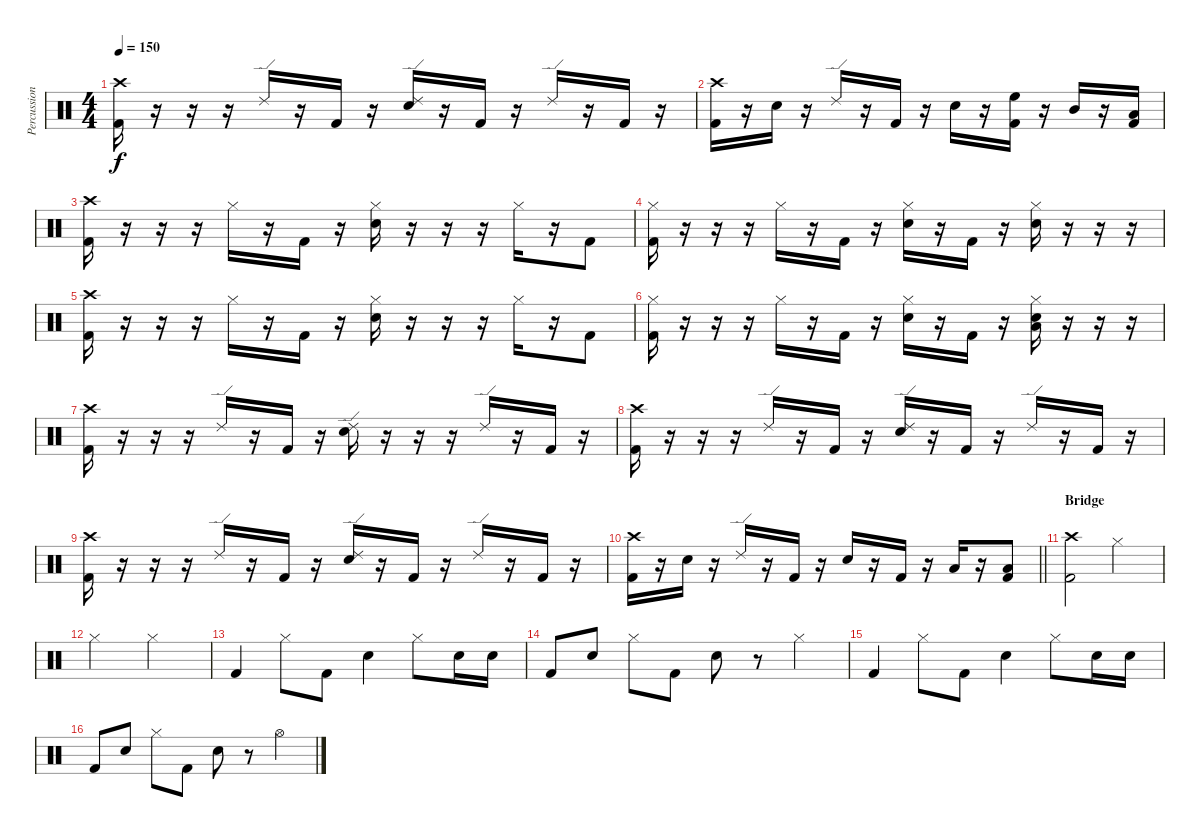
\track ("Percussion" "Percussion") {instrument percussion}
\staff {score}
\articulation defaults
\ts (4 4)
\tempo 150
\clef neutral
\ks c
("Crash high (hit)" "Kick (hit) 2").16{dy f} r.16 r.16 r.16 "Ride (edge) 2".16 r.16 "Kick (hit) 2".16 r.16 ("Ride (edge) 2" "Electric Snare (hit)").16 r.16 "Kick (hit) 2".16 r.16 "Ride (edge) 2".16 r.16 "Kick (hit) 2".16 r.16 |
("Crash high (hit)" "Kick (hit) 2").16 r.16 "Electric Snare (hit)".16 r.16 "Ride (edge) 2".16 r.16 "Kick (hit) 2".16 r.16 "Electric Snare (hit)".16 r.16 ("High Floor Tom (hit)" "Kick (hit) 2").16 r.16 "Mid Tom (hit)".16 r.16 ("Low Tom (hit)" "Kick (hit) 2").16 |
("Crash high (hit)" "Kick (hit) 2").16 r.16 r.16 r.16 "Hi-Hat (closed)".16 r.16 "Kick (hit) 2".16 r.16 ("Hi-Hat (closed)" "Electric Snare (hit)").16 r.16 r.16 r.16 "Hi-Hat (closed)".16 r.16 "Kick (hit) 2".8 |
("Hi-Hat (closed)" "Kick (hit) 2").16 r.16 r.16 r.16 "Hi-Hat (closed)".16 r.16 "Kick (hit) 2".16 r.16 ("Hi-Hat (closed)" "Electric Snare (hit)").16 r.16 "Kick (hit) 2".16 r.16 ("Hi-Hat (closed)" "Electric Snare (hit)").16 r.16 r.16 r.16 |
("Crash high (hit)" "Kick (hit) 2").16 r.16 r.16 r.16 "Hi-Hat (closed)".16 r.16 "Kick (hit) 2".16 r.16 ("Hi-Hat (closed)" "Electric Snare (hit)").16 r.16 r.16 r.16 "Hi-Hat (closed)".16 r.16 "Kick (hit) 2".8 |
("Hi-Hat (closed)" "Kick (hit) 2").16 r.16 r.16 r.16 "Hi-Hat (closed)".16 r.16 "Kick (hit) 2".16 r.16 ("Hi-Hat (closed)" "Electric Snare (hit)").16 r.16 "Kick (hit) 2".16 r.16 ("Hi-Hat (closed)" "Electric Snare (hit)" "Low Floor Tom (hit)").16 r.16 r.16 r.16 |
("Crash high (hit)" "Kick (hit) 2").16 r.16 r.16 r.16 "Ride (edge) 2".16 r.16 "Kick (hit) 2".16 r.16 ("Ride (edge) 2" "Electric Snare (hit)").16 r.16 r.16 r.16 "Ride (edge) 2".16 r.16 "Kick (hit) 2".16 r.16 |
("Crash high (hit)" "Kick (hit) 2").16 r.16 r.16 r.16 "Ride (edge) 2".16 r.16 "Kick (hit) 2".16 r.16 ("Ride (edge) 2" "Electric Snare (hit)").16 r.16 "Kick (hit) 2".16 r.16 "Ride (edge) 2".16 r.16 "Kick (hit) 2".16 r.16 |
("Crash high (hit)" "Kick (hit) 2").16 r.16 r.16 r.16 "Ride (edge) 2".16 r.16 "Kick (hit) 2".16 r.16 ("Ride (edge) 2" "Electric Snare (hit)").16 r.16 "Kick (hit) 2".16 r.16 "Ride (edge) 2".16 r.16 "Kick (hit) 2".16 r.16 |
\barLineRight lightlight
("Crash high (hit)" "Kick (hit) 2").16 r.16 "Electric Snare (hit)".16 r.16 "Ride (edge) 2".16 r.16 "Kick (hit) 2".16 r.16 "Electric Snare (hit)".16 r.16 "Kick (hit) 2".16 r.16 "Low Tom (hit)".16 r.16 ("Low Tom (hit)" "Kick (hit) 2").8 |
\section ("" "Bridge")
("Crash high (hit)" "Kick (hit) 2").2{volume 10} "Hi-Hat (closed)".2 |
"Hi-Hat (closed)".2 "Hi-Hat (closed)".2 |
"Kick (hit) 2".4 "Hi-Hat (closed)".8 "Kick (hit) 2".8 "Electric Snare (hit)".4 "Hi-Hat (closed)".8 "Electric Snare (hit)".16 "Electric Snare (hit)".16 |
"Kick (hit) 2".8 "Electric Snare (hit)".8 "Hi-Hat (closed)".8 "Kick (hit) 2".8 "Electric Snare (hit)".8 r.8 "Hi-Hat (closed)".4 |
"Kick (hit) 2".4 "Hi-Hat (closed)".8 "Kick (hit) 2".8 "Electric Snare (hit)".4 "Hi-Hat (closed)".8 "Electric Snare (hit)".16 "Electric Snare (hit)".16 |
"Kick (hit) 2".8 "Electric Snare (hit)".8 "Hi-Hat (closed)".8 "Kick (hit) 2".8 "Electric Snare (hit)".8 r.8 "Hi-Hat (open)".4
